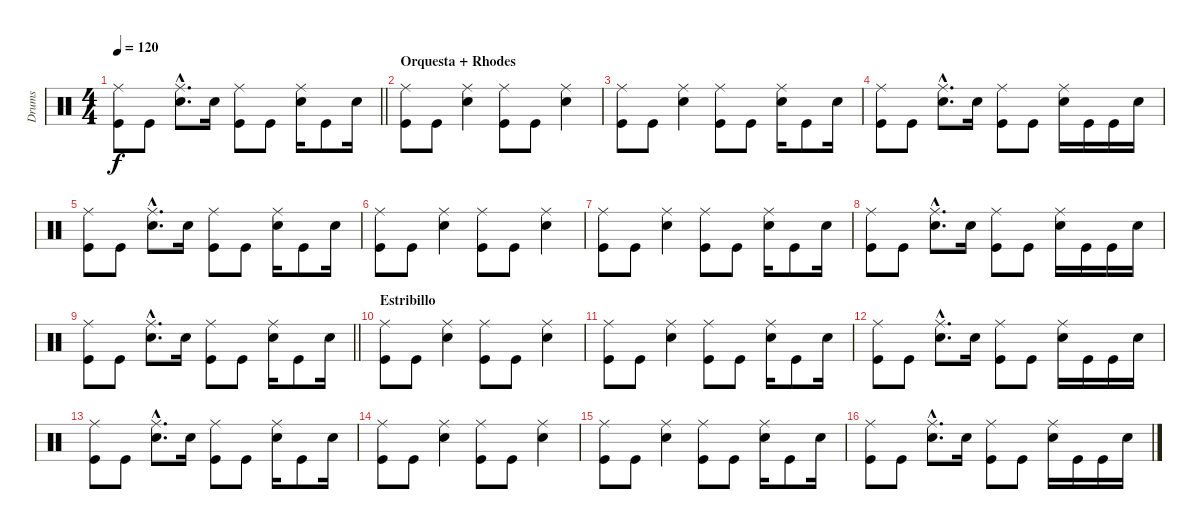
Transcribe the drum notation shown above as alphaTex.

\track ("Drums" "Drums") {instrument percussion}
\staff {score}
\articulation defaults
\ts (4 4)
\tempo 120
\clef neutral
\barLineRight lightlight
\ks c
("Ride (middle)" "Kick (hit)").8{dy f} "Kick (hit)".8 ("Ride (middle)"{hac} "Electric Snare (hit)"{hac}).8{d} "Electric Snare (hit)".16 ("Ride (middle)" "Kick (hit)").8 "Kick (hit)".8 ("Ride (middle)" "Electric Snare (hit)").16 "Kick (hit)".8 "Electric Snare (hit)".16 |
\section ("" "Orquesta + Rhodes")
("Ride (middle)" "Kick (hit)").8 "Kick (hit)".8 ("Ride (middle)" "Electric Snare (hit)").4 ("Ride (middle)" "Kick (hit)").8 "Kick (hit)".8 ("Ride (middle)" "Electric Snare (hit)").4 |
("Ride (middle)" "Kick (hit)").8 "Kick (hit)".8 ("Ride (middle)" "Electric Snare (hit)").4 ("Ride (middle)" "Kick (hit)").8 "Kick (hit)".8 ("Ride (middle)" "Electric Snare (hit)").16 "Kick (hit)".8 "Electric Snare (hit)".16 |
("Ride (middle)" "Kick (hit)").8 "Kick (hit)".8 ("Ride (middle)"{hac} "Electric Snare (hit)"{hac}).8{d} "Electric Snare (hit)".16 ("Ride (middle)" "Kick (hit)").8 "Kick (hit)".8 ("Ride (middle)" "Electric Snare (hit)").16 "Kick (hit)".16 "Kick (hit)".16 "Electric Snare (hit)".16 |
("Ride (middle)" "Kick (hit)").8 "Kick (hit)".8 ("Ride (middle)"{hac} "Electric Snare (hit)"{hac}).8{d} "Electric Snare (hit)".16 ("Ride (middle)" "Kick (hit)").8 "Kick (hit)".8 ("Ride (middle)" "Electric Snare (hit)").16 "Kick (hit)".8 "Electric Snare (hit)".16 |
("Ride (middle)" "Kick (hit)").8 "Kick (hit)".8 ("Ride (middle)" "Electric Snare (hit)").4 ("Ride (middle)" "Kick (hit)").8 "Kick (hit)".8 ("Ride (middle)" "Electric Snare (hit)").4 |
("Ride (middle)" "Kick (hit)").8 "Kick (hit)".8 ("Ride (middle)" "Electric Snare (hit)").4 ("Ride (middle)" "Kick (hit)").8 "Kick (hit)".8 ("Ride (middle)" "Electric Snare (hit)").16 "Kick (hit)".8 "Electric Snare (hit)".16 |
("Ride (middle)" "Kick (hit)").8 "Kick (hit)".8 ("Ride (middle)"{hac} "Electric Snare (hit)"{hac}).8{d} "Electric Snare (hit)".16 ("Ride (middle)" "Kick (hit)").8 "Kick (hit)".8 ("Ride (middle)" "Electric Snare (hit)").16 "Kick (hit)".16 "Kick (hit)".16 "Electric Snare (hit)".16 |
\barLineRight lightlight
("Ride (middle)" "Kick (hit)").8 "Kick (hit)".8 ("Ride (middle)"{hac} "Electric Snare (hit)"{hac}).8{d} "Electric Snare (hit)".16 ("Ride (middle)" "Kick (hit)").8 "Kick (hit)".8 ("Ride (middle)" "Electric Snare (hit)").16 "Kick (hit)".8 "Electric Snare (hit)".16 |
\section ("" "Estribillo")
("Ride (middle)" "Kick (hit)").8 "Kick (hit)".8 ("Ride (middle)" "Electric Snare (hit)").4 ("Ride (middle)" "Kick (hit)").8 "Kick (hit)".8 ("Ride (middle)" "Electric Snare (hit)").4 |
("Ride (middle)" "Kick (hit)").8 "Kick (hit)".8 ("Ride (middle)" "Electric Snare (hit)").4 ("Ride (middle)" "Kick (hit)").8 "Kick (hit)".8 ("Ride (middle)" "Electric Snare (hit)").16 "Kick (hit)".8 "Electric Snare (hit)".16 |
("Ride (middle)" "Kick (hit)").8 "Kick (hit)".8 ("Ride (middle)"{hac} "Electric Snare (hit)"{hac}).8{d} "Electric Snare (hit)".16 ("Ride (middle)" "Kick (hit)").8 "Kick (hit)".8 ("Ride (middle)" "Electric Snare (hit)").16 "Kick (hit)".16 "Kick (hit)".16 "Electric Snare (hit)".16 |
("Ride (middle)" "Kick (hit)").8 "Kick (hit)".8 ("Ride (middle)"{hac} "Electric Snare (hit)"{hac}).8{d} "Electric Snare (hit)".16 ("Ride (middle)" "Kick (hit)").8 "Kick (hit)".8 ("Ride (middle)" "Electric Snare (hit)").16 "Kick (hit)".8 "Electric Snare (hit)".16 |
("Ride (middle)" "Kick (hit)").8 "Kick (hit)".8 ("Ride (middle)" "Electric Snare (hit)").4 ("Ride (middle)" "Kick (hit)").8 "Kick (hit)".8 ("Ride (middle)" "Electric Snare (hit)").4 |
("Ride (middle)" "Kick (hit)").8 "Kick (hit)".8 ("Ride (middle)" "Electric Snare (hit)").4 ("Ride (middle)" "Kick (hit)").8 "Kick (hit)".8 ("Ride (middle)" "Electric Snare (hit)").16 "Kick (hit)".8 "Electric Snare (hit)".16 |
("Ride (middle)" "Kick (hit)").8 "Kick (hit)".8 ("Ride (middle)"{hac} "Electric Snare (hit)"{hac}).8{d} "Electric Snare (hit)".16 ("Ride (middle)" "Kick (hit)").8 "Kick (hit)".8 ("Ride (middle)" "Electric Snare (hit)").16 "Kick (hit)".16 "Kick (hit)".16 "Electric Snare (hit)".16
